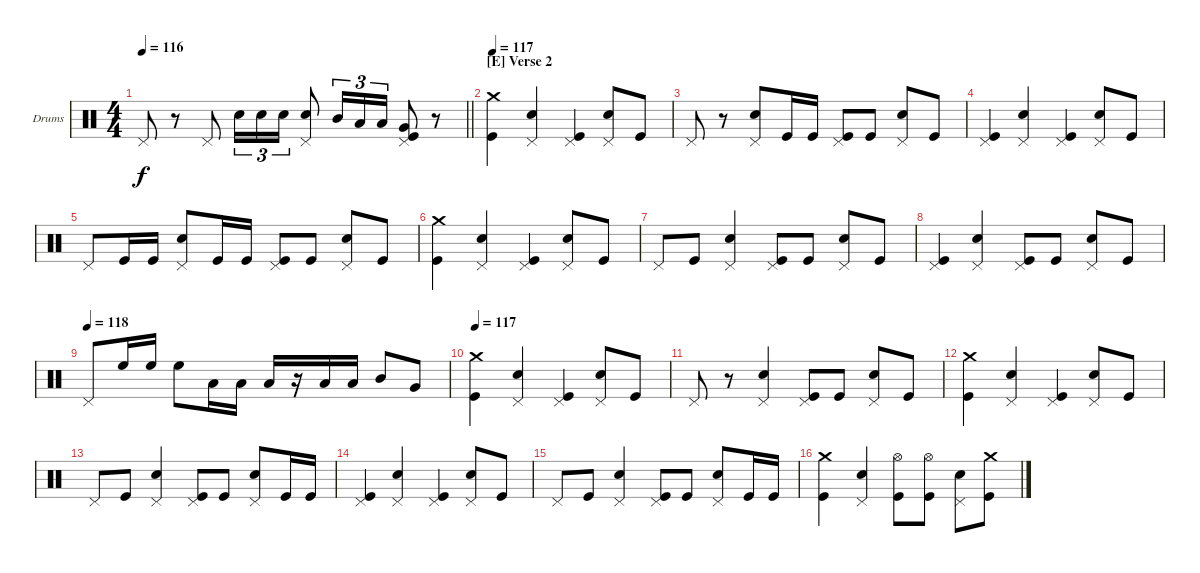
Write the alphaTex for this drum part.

\bracketExtendMode groupsimilarinstruments
\firstSystemTrackNameOrientation horizontal
\otherSystemsTrackNameOrientation horizontal
\track ("Vinny Appice" "Drums") {instrument percussion}
\staff {score}
\articulation defaults
\ts (4 4)
\tempo 116
\clef neutral
\barLineRight lightlight
\ks c "Pedal Hi-Hat (hit)".8{dy f}
r.8 "Pedal Hi-Hat (hit)".8 "Snare (hit) 2".16{tu (3 2)} "Snare (hit) 2".16{tu (3 2)} "Snare (hit) 2".16{tu (3 2)} ("Pedal Hi-Hat (hit)" "Snare (hit) 2").8 "Mid Tom (hit)".16{tu (3 2)} "Low Tom (hit)".16{tu (3 2)} "Low Tom (hit)".16{tu (3 2)} ("Pedal Hi-Hat (hit)" "Very Low Tom (hit)" "Kick (hit)").8 r.8 |
\section ("E" "Verse 2")
\tempo 117
("Kick (hit)" "Crash medium (hit)").4 ("Pedal Hi-Hat (hit)" "Snare (hit) 2").4 ("Pedal Hi-Hat (hit)" "Kick (hit)").4 ("Pedal Hi-Hat (hit)" "Snare (hit) 2").8 "Kick (hit)".8 |
"Pedal Hi-Hat (hit)".8 r.8 ("Pedal Hi-Hat (hit)" "Snare (hit) 2").8 "Kick (hit)".16 "Kick (hit)".16 ("Pedal Hi-Hat (hit)" "Kick (hit)").8 "Kick (hit)".8 ("Pedal Hi-Hat (hit)" "Snare (hit) 2").8 "Kick (hit)".8 |
("Pedal Hi-Hat (hit)" "Kick (hit)").4 ("Pedal Hi-Hat (hit)" "Snare (hit) 2").4 ("Pedal Hi-Hat (hit)" "Kick (hit)").4 ("Pedal Hi-Hat (hit)" "Snare (hit) 2").8 "Kick (hit)".8 |
"Pedal Hi-Hat (hit)".8 "Kick (hit)".16 "Kick (hit)".16 ("Pedal Hi-Hat (hit)" "Snare (hit) 2").8 "Kick (hit)".16 "Kick (hit)".16 ("Pedal Hi-Hat (hit)" "Kick (hit)").8 "Kick (hit)".8 ("Pedal Hi-Hat (hit)" "Snare (hit) 2").8 "Kick (hit)".8 |
("Kick (hit)" "Crash medium (hit)").4 ("Pedal Hi-Hat (hit)" "Snare (hit) 2").4 ("Pedal Hi-Hat (hit)" "Kick (hit)").4 ("Pedal Hi-Hat (hit)" "Snare (hit) 2").8 "Kick (hit)".8 |
"Pedal Hi-Hat (hit)".8 "Kick (hit)".8 ("Pedal Hi-Hat (hit)" "Snare (hit) 2").4 ("Pedal Hi-Hat (hit)" "Kick (hit)").8 "Kick (hit)".8 ("Pedal Hi-Hat (hit)" "Snare (hit) 2").8 "Kick (hit)".8 |
("Pedal Hi-Hat (hit)" "Kick (hit)").4 ("Pedal Hi-Hat (hit)" "Snare (hit) 2").4 ("Pedal Hi-Hat (hit)" "Kick (hit)").8 "Kick (hit)".8 ("Pedal Hi-Hat (hit)" "Snare (hit) 2").8 "Kick (hit)".8 |
\tempo (118)
"Pedal Hi-Hat (hit)".8 "High Floor Tom (hit)".16 "High Floor Tom (hit)".16 "High Floor Tom (hit)".8 "Low Tom (hit)".16 "Low Tom (hit)".16 "Low Tom (hit)".16 r.16 "Low Tom (hit)".16 "Low Tom (hit)".16 "Mid Tom (hit)".8 "Very Low Tom (hit)".8 |
\tempo 117
("Kick (hit)" "Crash medium (hit)").4 ("Pedal Hi-Hat (hit)" "Snare (hit) 2").4 ("Pedal Hi-Hat (hit)" "Kick (hit)").4 ("Pedal Hi-Hat (hit)" "Snare (hit) 2").8 "Kick (hit)".8 |
"Pedal Hi-Hat (hit)".8 r.8 ("Pedal Hi-Hat (hit)" "Snare (hit) 2").4 ("Pedal Hi-Hat (hit)" "Kick (hit)").8 "Kick (hit)".8 ("Pedal Hi-Hat (hit)" "Snare (hit) 2").8 "Kick (hit)".8 |
("Kick (hit)" "Crash medium (hit)").4 ("Pedal Hi-Hat (hit)" "Snare (hit) 2").4 ("Pedal Hi-Hat (hit)" "Kick (hit)").4 ("Pedal Hi-Hat (hit)" "Snare (hit) 2").8 "Kick (hit)".8 |
"Pedal Hi-Hat (hit)".8 "Kick (hit)".8 ("Pedal Hi-Hat (hit)" "Snare (hit) 2").4 ("Pedal Hi-Hat (hit)" "Kick (hit)").8 "Kick (hit)".8 ("Pedal Hi-Hat (hit)" "Snare (hit) 2").8 "Kick (hit)".16 "Kick (hit)".16 |
("Pedal Hi-Hat (hit)" "Kick (hit)").4 ("Pedal Hi-Hat (hit)" "Snare (hit) 2").4 ("Pedal Hi-Hat (hit)" "Kick (hit)").4 ("Pedal Hi-Hat (hit)" "Snare (hit) 2").8 "Kick (hit)".8 |
"Pedal Hi-Hat (hit)".8 "Kick (hit)".8 ("Pedal Hi-Hat (hit)" "Snare (hit) 2").4 ("Pedal Hi-Hat (hit)" "Kick (hit)").8 "Kick (hit)".8 ("Pedal Hi-Hat (hit)" "Snare (hit) 2").8 "Kick (hit)".16 "Kick (hit)".16 |
("Kick (hit)" "Crash medium (hit)").4 ("Pedal Hi-Hat (hit)" "Snare (hit) 2").4 ("Hi-Hat (open)" "Kick (hit)").8 ("Hi-Hat (open)" "Kick (hit)").8 ("Pedal Hi-Hat (hit)" "Snare (hit) 2").8 ("Kick (hit)" "Crash medium (hit)").8
